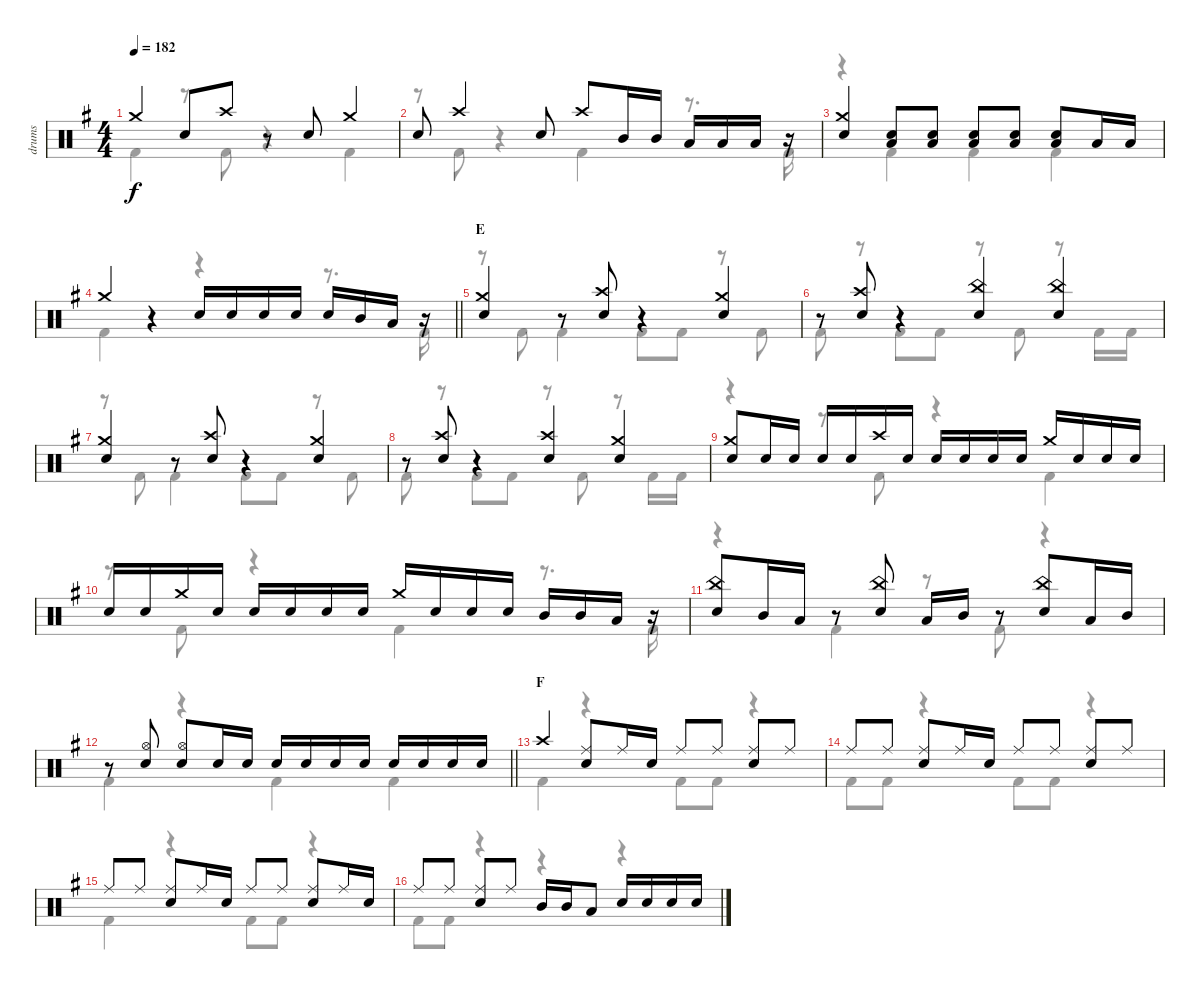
\track ("drums" "drums") {instrument percussion}
\staff {score}
\articulation defaults
\voice
\ts (4 4)
\tempo 182
\clef neutral
\ks g "Crash medium (hit)".4{dy f} "Snare (hit) 2".8 "Crash high (hit)".8
r.8 "Snare (hit) 2".8 "Crash medium (hit)".4 |
"Snare (hit) 2".8 "Crash high (hit)".4 "Snare (hit) 2".8 "Crash high (hit)".8 "Mid Tom (hit)".16 "Mid Tom (hit)".16 "Low Tom (hit)".16 "Low Tom (hit)".16 "Low Floor Tom (hit)".16 r.16 |
("Crash medium (hit)" "Snare (hit) 2").4 ("Snare (hit) 2" "Low Floor Tom (hit)").8 ("Snare (hit) 2" "Low Floor Tom (hit)").8 ("Snare (hit) 2" "Low Floor Tom (hit)").8 ("Snare (hit) 2" "Low Floor Tom (hit)").8 ("Snare (hit) 2" "Low Floor Tom (hit)").8 "Low Floor Tom (hit)".16 "Low Floor Tom (hit)".16 |
\barLineRight lightlight "Crash medium (hit)".4
r.4 "Snare (hit) 2".16 "Snare (hit) 2".16 "Snare (hit) 2".16 "Snare (hit) 2".16 "Snare (hit) 2".16 "Mid Tom (hit)".16 "Low Tom (hit)".16 r.16 |
\section ("" "E")
("Crash medium (hit)" "Snare (hit) 2").4 r.8 ("Crash high (hit)" "Snare (hit) 2").8 r.4 ("Crash medium (hit)" "Snare (hit) 2").4 |
r.8 ("Crash high (hit)" "Snare (hit) 2").8 r.4 ("China (hit)" "Snare (hit) 2").4 ("China (hit)" "Snare (hit) 2").4 |
("Crash medium (hit)" "Snare (hit) 2").4 r.8 ("Crash high (hit)" "Snare (hit) 2").8 r.4 ("Crash medium (hit)" "Snare (hit) 2").4 |
r.8 ("Crash high (hit)" "Snare (hit) 2").8 r.4 ("Crash high (hit)" "Snare (hit) 2").4 ("Crash medium (hit)" "Snare (hit) 2").4 |
("Crash medium (hit)" "Snare (hit) 2").8 "Snare (hit) 2".16 "Snare (hit) 2".16 "Snare (hit) 2".16 "Snare (hit) 2".16 "Crash high (hit)".16 "Snare (hit) 2".16 "Snare (hit) 2".16 "Snare (hit) 2".16 "Snare (hit) 2".16 "Snare (hit) 2".16 "Crash medium (hit)".16 "Snare (hit) 2".16 "Snare (hit) 2".16 "Snare (hit) 2".16 |
"Snare (hit) 2".16 "Snare (hit) 2".16 "Crash medium (hit)".16 "Snare (hit) 2".16 "Snare (hit) 2".16 "Snare (hit) 2".16 "Snare (hit) 2".16 "Snare (hit) 2".16 "Crash medium (hit)".16 "Snare (hit) 2".16 "Snare (hit) 2".16 "Snare (hit) 2".16 "Mid Tom (hit)".16 "Mid Tom (hit)".16 "Low Tom (hit)".16 r.16 |
("China (hit)" "Snare (hit) 2").8 "Mid Tom (hit)".16 "Low Floor Tom (hit)".16 r.8 ("China (hit)" "Snare (hit) 2").8 "Low Floor Tom (hit)".16 "Mid Tom (hit)".16 r.8 ("China (hit)" "Snare (hit) 2").8 "Low Floor Tom (hit)".16 "Mid Tom (hit)".16 |
\barLineRight lightlight
r.8 ("Hi-Hat (open)" "Snare (hit) 2").8 ("Hi-Hat (open)" "Snare (hit) 2").8 "Snare (hit) 2".16 "Snare (hit) 2".16 "Snare (hit) 2".16 "Snare (hit) 2".16 "Snare (hit) 2".16 "Snare (hit) 2".16 "Snare (hit) 2".16 "Snare (hit) 2".16 "Snare (hit) 2".16 "Snare (hit) 2".16 |
\section ("" "F")
"Crash high (hit)".4 ("Ride (middle)" "Snare (hit) 2").8 "Ride (middle)".16 "Snare (hit) 2".16 "Ride (middle)".8 "Ride (middle)".8 ("Ride (middle)" "Snare (hit) 2").8 "Ride (middle)".8 |
"Ride (middle)".8 "Ride (middle)".8 ("Ride (middle)" "Snare (hit) 2").8 "Ride (middle)".16 "Snare (hit) 2".16 "Ride (middle)".8 "Ride (middle)".8 ("Ride (middle)" "Snare (hit) 2").8 "Ride (middle)".8 |
"Ride (middle)".8 "Ride (middle)".8 ("Ride (middle)" "Snare (hit) 2").8 "Ride (middle)".16 "Snare (hit) 2".16 "Ride (middle)".8 "Ride (middle)".8 ("Ride (middle)" "Snare (hit) 2").8 "Ride (middle)".16 "Snare (hit) 2".16 |
"Ride (middle)".8 "Ride (middle)".8 ("Ride (middle)" "Snare (hit) 2").8 "Ride (middle)".8 "Mid Tom (hit)".16 "Mid Tom (hit)".16 "Low Tom (hit)".8 "Snare (hit) 2".16 "Snare (hit) 2".16 "Snare (hit) 2".16 "Snare (hit) 2".16
\voice
\clef neutral
\ottava regular
\simile none
\ks g "Kick (hit) 2".4{dy f}
r.8 "Kick (hit) 2".8 r.4 "Kick (hit) 2".4 |
r.8 "Kick (hit) 2".8 r.4 "Kick (hit) 2".4 r.8{d} "Kick (hit) 2".16 |
r.4 "Kick (hit) 2".4 "Kick (hit) 2".4 "Kick (hit) 2".4 |
\barLineRight lightlight "Kick (hit) 2".4
r.4 r.4 r.8{d} "Kick (hit) 2".16 |
r.8 "Kick (hit) 2".8 "Kick (hit) 2".4 "Kick (hit) 2".8 "Kick (hit) 2".8 r.8 "Kick (hit) 2".8 |
"Kick (hit) 2".8 r.8 "Kick (hit) 2".8 "Kick (hit) 2".8 r.8 "Kick (hit) 2".8 r.8 "Kick (hit) 2".16 "Kick (hit) 2".16 |
r.8 "Kick (hit) 2".8 "Kick (hit) 2".4 "Kick (hit) 2".8 "Kick (hit) 2".8 r.8 "Kick (hit) 2".8 |
"Kick (hit) 2".8 r.8 "Kick (hit) 2".8 "Kick (hit) 2".8 r.8 "Kick (hit) 2".8 r.8 "Kick (hit) 2".16 "Kick (hit) 2".16 |
r.4 r.8 "Kick (hit) 2".8 r.4 "Kick (hit) 2".4 |
r.8 "Kick (hit) 2".8 r.4 "Kick (hit) 2".4 r.8{d} "Kick (hit) 2".16 |
r.4 "Kick (hit) 2".4 r.8 "Kick (hit) 2".8 r.4 |
\barLineRight lightlight "Kick (hit) 2".4
r.4 "Kick (hit) 2".4 "Kick (hit) 2".4 |
"Kick (hit) 2".4 r.4 "Kick (hit) 2".8 "Kick (hit) 2".8 r.4 |
"Kick (hit) 2".8 "Kick (hit) 2".8 r.4 "Kick (hit) 2".8 "Kick (hit) 2".8 r.4 |
"Kick (hit) 2".4 r.4 "Kick (hit) 2".8 "Kick (hit) 2".8 r.4 |
"Kick (hit) 2".8 "Kick (hit) 2".8 r.4 r.4 r.4
